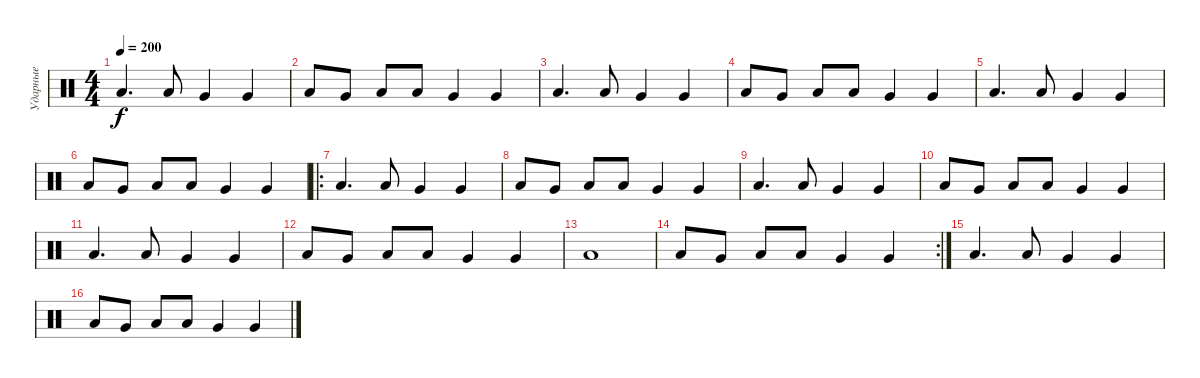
\track ("Ударные" "Ударные") {instrument percussion}
\staff {score}
\articulation defaults
\ts (4 4)
\tempo 200
\clef neutral
\ks c "Low Floor Tom (hit)".4{d dy f} "Low Floor Tom (hit)".8 "Very Low Tom (hit)".4 "Very Low Tom (hit)".4
|
"Low Floor Tom (hit)".8 "Very Low Tom (hit)".8 "Low Floor Tom (hit)".8 "Low Floor Tom (hit)".8 "Very Low Tom (hit)".4 "Very Low Tom (hit)".4 |
"Low Floor Tom (hit)".4{d} "Low Floor Tom (hit)".8 "Very Low Tom (hit)".4 "Very Low Tom (hit)".4 |
"Low Floor Tom (hit)".8 "Very Low Tom (hit)".8 "Low Floor Tom (hit)".8 "Low Floor Tom (hit)".8 "Very Low Tom (hit)".4 "Very Low Tom (hit)".4 |
"Low Floor Tom (hit)".4{d} "Low Floor Tom (hit)".8 "Very Low Tom (hit)".4 "Very Low Tom (hit)".4 |
"Low Floor Tom (hit)".8 "Very Low Tom (hit)".8 "Low Floor Tom (hit)".8 "Low Floor Tom (hit)".8 "Very Low Tom (hit)".4 "Very Low Tom (hit)".4 |
\ro "Low Floor Tom (hit)".4{d} "Low Floor Tom (hit)".8 "Very Low Tom (hit)".4 "Very Low Tom (hit)".4
|
"Low Floor Tom (hit)".8 "Very Low Tom (hit)".8 "Low Floor Tom (hit)".8 "Low Floor Tom (hit)".8 "Very Low Tom (hit)".4 "Very Low Tom (hit)".4 |
"Low Floor Tom (hit)".4{d} "Low Floor Tom (hit)".8 "Very Low Tom (hit)".4 "Very Low Tom (hit)".4 |
"Low Floor Tom (hit)".8 "Very Low Tom (hit)".8 "Low Floor Tom (hit)".8 "Low Floor Tom (hit)".8 "Very Low Tom (hit)".4 "Very Low Tom (hit)".4 |
"Low Floor Tom (hit)".4{d} "Low Floor Tom (hit)".8 "Very Low Tom (hit)".4 "Very Low Tom (hit)".4 |
"Low Floor Tom (hit)".8 "Very Low Tom (hit)".8 "Low Floor Tom (hit)".8 "Low Floor Tom (hit)".8 "Very Low Tom (hit)".4 "Very Low Tom (hit)".4 |
"Low Floor Tom (hit)".1 |
\rc 2 "Low Floor Tom (hit)".8 "Very Low Tom (hit)".8 "Low Floor Tom (hit)".8 "Low Floor Tom (hit)".8 "Very Low Tom (hit)".4 "Very Low Tom (hit)".4
|
"Low Floor Tom (hit)".4{d} "Low Floor Tom (hit)".8 "Very Low Tom (hit)".4 "Very Low Tom (hit)".4 |
"Low Floor Tom (hit)".8 "Very Low Tom (hit)".8 "Low Floor Tom (hit)".8 "Low Floor Tom (hit)".8 "Very Low Tom (hit)".4 "Very Low Tom (hit)".4
